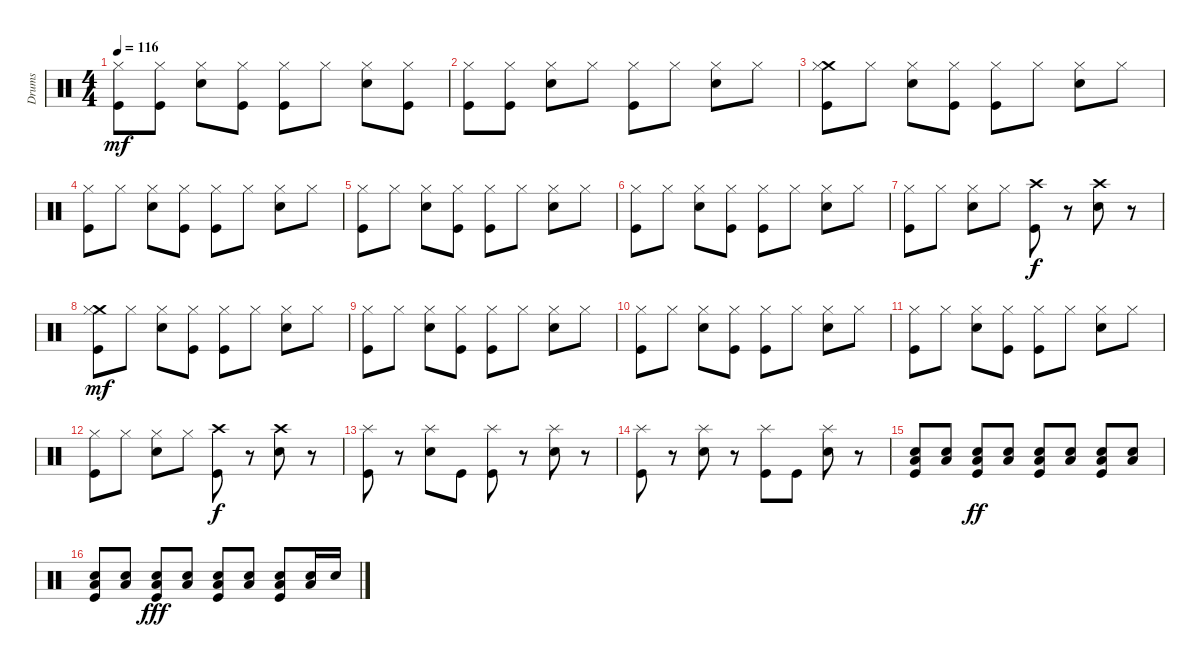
\track ("Drums" "Drums") {instrument percussion}
\staff {score}
\articulation defaults
\ts (4 4)
\tempo 116
\clef neutral
\ks c
("Kick (hit)" "Hi-Hat (closed)").8{dy mf} ("Kick (hit)" "Hi-Hat (closed)").8 ("Electric Snare (hit)" "Hi-Hat (closed)").8 ("Kick (hit)" "Hi-Hat (closed)").8 ("Kick (hit)" "Hi-Hat (closed)").8 "Hi-Hat (closed)".8 ("Electric Snare (hit)" "Hi-Hat (closed)").8 ("Kick (hit)" "Hi-Hat (closed)").8 |
("Kick (hit)" "Hi-Hat (closed)").8 ("Kick (hit)" "Hi-Hat (closed)").8 ("Electric Snare (hit)" "Hi-Hat (closed)").8 "Hi-Hat (closed)".8 ("Kick (hit)" "Hi-Hat (closed)").8 "Hi-Hat (closed)".8 ("Electric Snare (hit)" "Hi-Hat (closed)").8 "Hi-Hat (closed)".8 |
("Crash medium (hit)" "Hi-Hat (closed)" "Kick (hit)").8 "Hi-Hat (closed)".8 ("Hi-Hat (closed)" "Electric Snare (hit)").8 ("Hi-Hat (closed)" "Kick (hit)").8 ("Hi-Hat (closed)" "Kick (hit)").8 "Hi-Hat (closed)".8 ("Hi-Hat (closed)" "Electric Snare (hit)").8 "Hi-Hat (closed)".8 |
("Hi-Hat (closed)" "Kick (hit)").8 "Hi-Hat (closed)".8 ("Hi-Hat (closed)" "Electric Snare (hit)").8 ("Hi-Hat (closed)" "Kick (hit)").8 ("Hi-Hat (closed)" "Kick (hit)").8 "Hi-Hat (closed)".8 ("Hi-Hat (closed)" "Electric Snare (hit)").8 "Hi-Hat (closed)".8 |
("Hi-Hat (closed)" "Kick (hit)").8 "Hi-Hat (closed)".8 ("Hi-Hat (closed)" "Electric Snare (hit)").8 ("Hi-Hat (closed)" "Kick (hit)").8 ("Hi-Hat (closed)" "Kick (hit)").8 "Hi-Hat (closed)".8 ("Hi-Hat (closed)" "Electric Snare (hit)").8 "Hi-Hat (closed)".8 |
("Hi-Hat (closed)" "Kick (hit)").8 "Hi-Hat (closed)".8 ("Hi-Hat (closed)" "Electric Snare (hit)").8 ("Hi-Hat (closed)" "Kick (hit)").8 ("Hi-Hat (closed)" "Kick (hit)").8 "Hi-Hat (closed)".8 ("Hi-Hat (closed)" "Electric Snare (hit)").8 "Hi-Hat (closed)".8 |
("Hi-Hat (closed)" "Kick (hit)").8 "Hi-Hat (closed)".8 ("Hi-Hat (closed)" "Electric Snare (hit)").8 "Hi-Hat (closed)".8 ("Kick (hit)" "Crash high (hit)").8{dy f} r.8 ("Electric Snare (hit)" "Crash high (hit)").8 r.8 |
("Crash medium (hit)" "Hi-Hat (closed)" "Kick (hit)").8{dy mf} "Hi-Hat (closed)".8 ("Hi-Hat (closed)" "Electric Snare (hit)").8 ("Hi-Hat (closed)" "Kick (hit)").8 ("Hi-Hat (closed)" "Kick (hit)").8 "Hi-Hat (closed)".8 ("Hi-Hat (closed)" "Electric Snare (hit)").8 "Hi-Hat (closed)".8 |
("Hi-Hat (closed)" "Kick (hit)").8 "Hi-Hat (closed)".8 ("Hi-Hat (closed)" "Electric Snare (hit)").8 ("Hi-Hat (closed)" "Kick (hit)").8 ("Hi-Hat (closed)" "Kick (hit)").8 "Hi-Hat (closed)".8 ("Hi-Hat (closed)" "Electric Snare (hit)").8 "Hi-Hat (closed)".8 |
("Hi-Hat (closed)" "Kick (hit)").8 "Hi-Hat (closed)".8 ("Hi-Hat (closed)" "Electric Snare (hit)").8 ("Hi-Hat (closed)" "Kick (hit)").8 ("Hi-Hat (closed)" "Kick (hit)").8 "Hi-Hat (closed)".8 ("Hi-Hat (closed)" "Electric Snare (hit)").8 "Hi-Hat (closed)".8 |
("Hi-Hat (closed)" "Kick (hit)").8 "Hi-Hat (closed)".8 ("Hi-Hat (closed)" "Electric Snare (hit)").8 ("Hi-Hat (closed)" "Kick (hit)").8 ("Hi-Hat (closed)" "Kick (hit)").8 "Hi-Hat (closed)".8 ("Hi-Hat (closed)" "Electric Snare (hit)").8 "Hi-Hat (closed)".8 |
("Hi-Hat (closed)" "Kick (hit)").8 "Hi-Hat (closed)".8 ("Hi-Hat (closed)" "Electric Snare (hit)").8 "Hi-Hat (closed)".8 ("Kick (hit)" "Crash high (hit)").8{dy f} r.8 ("Electric Snare (hit)" "Crash high (hit)").8 r.8 |
("Splash (hit)" "Kick (hit)").8 r.8 ("Splash (hit)" "Electric Snare (hit)").8 "Kick (hit)".8 ("Splash (hit)" "Kick (hit)").8 r.8 ("Splash (hit)" "Electric Snare (hit)").8 r.8 |
("Splash (hit)" "Kick (hit)").8 r.8 ("Splash (hit)" "Electric Snare (hit)").8 r.8 ("Splash (hit)" "Kick (hit)").8 "Kick (hit)".8 ("Splash (hit)" "Electric Snare (hit)").8 r.8 |
("Low Floor Tom (hit)" "Electric Snare (hit)" "Kick (hit)").8 ("Low Floor Tom (hit)" "Electric Snare (hit)").8 ("Low Floor Tom (hit)" "Electric Snare (hit)" "Kick (hit)").8{dy ff} ("Low Floor Tom (hit)" "Electric Snare (hit)").8 ("Low Floor Tom (hit)" "Electric Snare (hit)" "Kick (hit)").8 ("Low Floor Tom (hit)" "Electric Snare (hit)").8 ("Low Floor Tom (hit)" "Electric Snare (hit)" "Kick (hit)").8 ("Low Floor Tom (hit)" "Electric Snare (hit)").8 |
("Low Floor Tom (hit)" "Electric Snare (hit)" "Kick (hit)").8 ("Low Floor Tom (hit)" "Electric Snare (hit)").8 ("Low Floor Tom (hit)" "Electric Snare (hit)" "Kick (hit)").8{dy fff} ("Low Floor Tom (hit)" "Electric Snare (hit)").8 ("Low Floor Tom (hit)" "Electric Snare (hit)" "Kick (hit)").8 ("Low Floor Tom (hit)" "Electric Snare (hit)").8 ("Low Floor Tom (hit)" "Electric Snare (hit)" "Kick (hit)").8 ("Electric Snare (hit)" "Low Floor Tom (hit)").16 "Electric Snare (hit)".16
